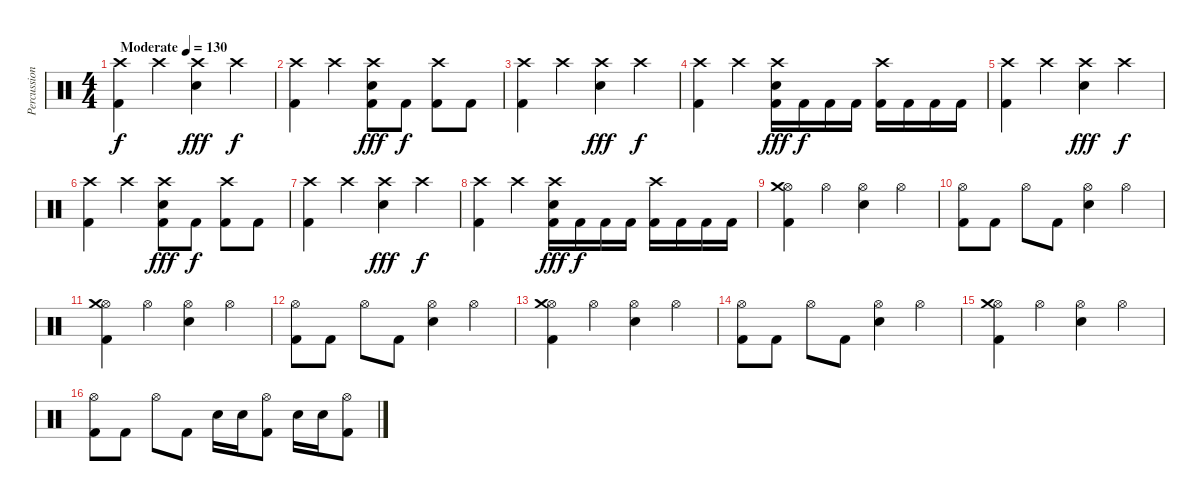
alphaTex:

\track ("Percussion" "Percussion") {instrument percussion}
\staff {score}
\articulation defaults
\ts (4 4)
\tempo (130 "Moderate")
\clef neutral
\ks c
("Crash high (hit)" "Kick (hit) 2").4{dy f} "Crash high (hit)".4 ("Crash high (hit)" "Electric Snare (hit)").4{dy fff} "Crash high (hit)".4{dy f} |
("Crash high (hit)" "Kick (hit) 2").4 "Crash high (hit)".4 ("Crash high (hit)" "Electric Snare (hit)" "Kick (hit) 2").8{dy fff} "Kick (hit) 2".8{dy f} ("Crash high (hit)" "Kick (hit) 2").8 "Kick (hit) 2".8 |
("Crash high (hit)" "Kick (hit) 2").4 "Crash high (hit)".4 ("Crash high (hit)" "Electric Snare (hit)").4{dy fff} "Crash high (hit)".4{dy f} |
("Crash high (hit)" "Kick (hit) 2").4 "Crash high (hit)".4 ("Crash high (hit)" "Electric Snare (hit)" "Kick (hit) 2").16{dy fff} "Kick (hit) 2".16{dy f} "Kick (hit) 2".16 "Kick (hit) 2".16 ("Crash high (hit)" "Kick (hit) 2").16 "Kick (hit) 2".16 "Kick (hit) 2".16 "Kick (hit) 2".16 |
("Crash high (hit)" "Kick (hit) 2").4 "Crash high (hit)".4 ("Crash high (hit)" "Electric Snare (hit)").4{dy fff} "Crash high (hit)".4{dy f} |
("Crash high (hit)" "Kick (hit) 2").4 "Crash high (hit)".4 ("Crash high (hit)" "Electric Snare (hit)" "Kick (hit) 2").8{dy fff} "Kick (hit) 2".8{dy f} ("Crash high (hit)" "Kick (hit) 2").8 "Kick (hit) 2".8 |
("Crash high (hit)" "Kick (hit) 2").4 "Crash high (hit)".4 ("Crash high (hit)" "Electric Snare (hit)").4{dy fff} "Crash high (hit)".4{dy f} |
("Crash high (hit)" "Kick (hit) 2").4 "Crash high (hit)".4 ("Crash high (hit)" "Electric Snare (hit)" "Kick (hit) 2").16{dy fff} "Kick (hit) 2".16{dy f} "Kick (hit) 2".16 "Kick (hit) 2".16 ("Crash high (hit)" "Kick (hit) 2").16 "Kick (hit) 2".16 "Kick (hit) 2".16 "Kick (hit) 2".16 |
("Hi-Hat (open)" "Crash medium (hit)" "Kick (hit) 2").4 "Hi-Hat (open)".4 ("Hi-Hat (open)" "Electric Snare (hit)").4 "Hi-Hat (open)".4 |
("Hi-Hat (open)" "Kick (hit) 2").8 "Kick (hit) 2".8 "Hi-Hat (open)".8 "Kick (hit) 2".8 ("Hi-Hat (open)" "Electric Snare (hit)").4 "Hi-Hat (open)".4 |
("Hi-Hat (open)" "Crash medium (hit)" "Kick (hit) 2").4 "Hi-Hat (open)".4 ("Hi-Hat (open)" "Electric Snare (hit)").4 "Hi-Hat (open)".4 |
("Hi-Hat (open)" "Kick (hit) 2").8 "Kick (hit) 2".8 "Hi-Hat (open)".8 "Kick (hit) 2".8 ("Hi-Hat (open)" "Electric Snare (hit)").4 "Hi-Hat (open)".4 |
("Hi-Hat (open)" "Crash medium (hit)" "Kick (hit) 2").4 "Hi-Hat (open)".4 ("Hi-Hat (open)" "Electric Snare (hit)").4 "Hi-Hat (open)".4 |
("Hi-Hat (open)" "Kick (hit) 2").8 "Kick (hit) 2".8 "Hi-Hat (open)".8 "Kick (hit) 2".8 ("Hi-Hat (open)" "Electric Snare (hit)").4 "Hi-Hat (open)".4 |
("Hi-Hat (open)" "Crash medium (hit)" "Kick (hit) 2").4 "Hi-Hat (open)".4 ("Hi-Hat (open)" "Electric Snare (hit)").4 "Hi-Hat (open)".4 |
("Hi-Hat (open)" "Kick (hit) 2").8 "Kick (hit) 2".8 "Hi-Hat (open)".8 "Kick (hit) 2".8 "Electric Snare (hit)".16 "Electric Snare (hit)".16 ("Hi-Hat (open)" "Kick (hit) 2").8 "Electric Snare (hit)".16 "Electric Snare (hit)".16 ("Hi-Hat (open)" "Kick (hit) 2").8
